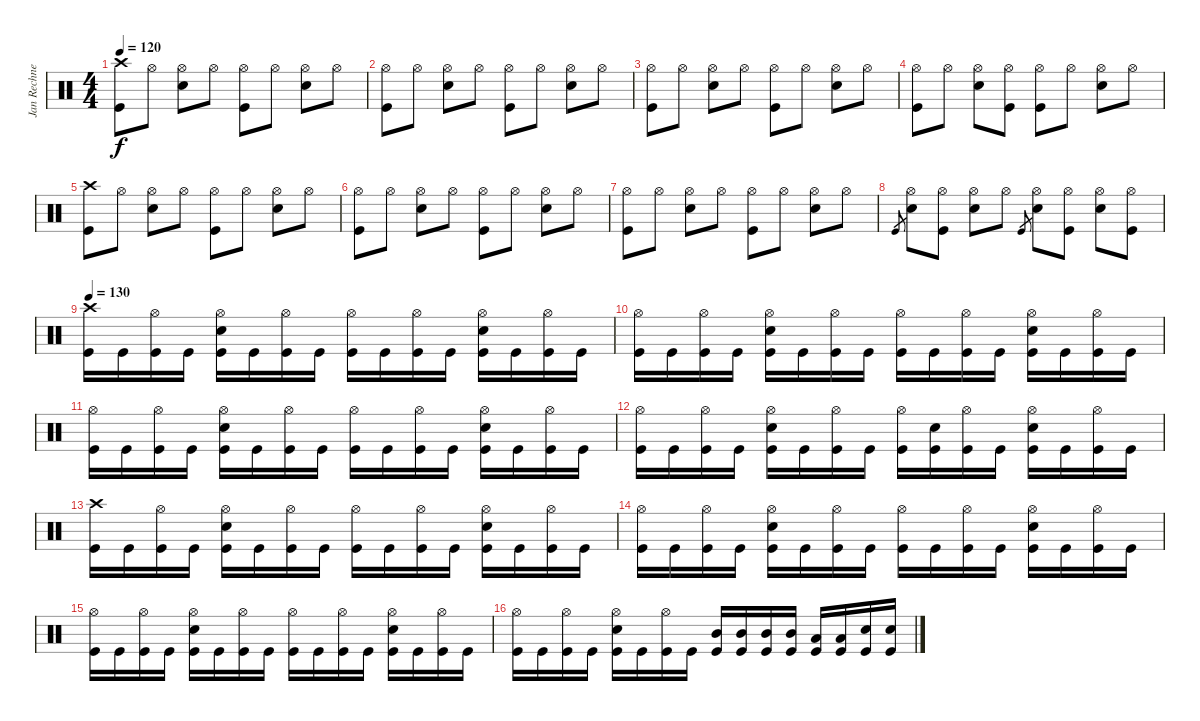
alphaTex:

\track ("Jan Rechnerger" "Jan Rechne") {instrument percussion}
\staff {score}
\articulation defaults
\ts (4 4)
\tempo 120
\clef neutral
\ks c
("Kick (hit)" "Crash high (hit)").8{dy f} "Hi-Hat (open)".8 ("Snare (hit) 2" "Hi-Hat (open)").8 "Hi-Hat (open)".8 ("Kick (hit)" "Hi-Hat (open)").8 "Hi-Hat (open)".8 ("Snare (hit) 2" "Hi-Hat (open)").8 "Hi-Hat (open)".8 |
("Kick (hit)" "Hi-Hat (open)").8 "Hi-Hat (open)".8 ("Snare (hit) 2" "Hi-Hat (open)").8 "Hi-Hat (open)".8 ("Kick (hit)" "Hi-Hat (open)").8 "Hi-Hat (open)".8 ("Snare (hit) 2" "Hi-Hat (open)").8 "Hi-Hat (open)".8 |
("Kick (hit)" "Hi-Hat (open)").8 "Hi-Hat (open)".8 ("Snare (hit) 2" "Hi-Hat (open)").8 "Hi-Hat (open)".8 ("Kick (hit)" "Hi-Hat (open)").8 "Hi-Hat (open)".8 ("Snare (hit) 2" "Hi-Hat (open)").8 "Hi-Hat (open)".8 |
("Kick (hit)" "Hi-Hat (open)").8 "Hi-Hat (open)".8 ("Snare (hit) 2" "Hi-Hat (open)").8 ("Kick (hit)" "Hi-Hat (open)").8 ("Kick (hit)" "Hi-Hat (open)").8 "Hi-Hat (open)".8 ("Snare (hit) 2" "Hi-Hat (open)").8 "Hi-Hat (open)".8 |
("Kick (hit)" "Crash high (hit)").8 "Hi-Hat (open)".8 ("Snare (hit) 2" "Hi-Hat (open)").8 "Hi-Hat (open)".8 ("Kick (hit)" "Hi-Hat (open)").8 "Hi-Hat (open)".8 ("Snare (hit) 2" "Hi-Hat (open)").8 "Hi-Hat (open)".8 |
("Kick (hit)" "Hi-Hat (open)").8 "Hi-Hat (open)".8 ("Snare (hit) 2" "Hi-Hat (open)").8 "Hi-Hat (open)".8 ("Kick (hit)" "Hi-Hat (open)").8 "Hi-Hat (open)".8 ("Snare (hit) 2" "Hi-Hat (open)").8 "Hi-Hat (open)".8 |
("Kick (hit)" "Hi-Hat (open)").8 "Hi-Hat (open)".8 ("Snare (hit) 2" "Hi-Hat (open)").8 "Hi-Hat (open)".8 ("Kick (hit)" "Hi-Hat (open)").8 "Hi-Hat (open)".8 ("Snare (hit) 2" "Hi-Hat (open)").8 "Hi-Hat (open)".8 |
"Kick (hit)".8{gr} ("Snare (hit) 2" "Hi-Hat (open)").8 ("Kick (hit)" "Hi-Hat (open)").8 ("Snare (hit) 2" "Hi-Hat (open)").8 "Hi-Hat (open)".8 "Kick (hit)".8{gr} ("Snare (hit) 2" "Hi-Hat (open)").8 ("Kick (hit)" "Hi-Hat (open)").8 ("Snare (hit) 2" "Hi-Hat (open)").8 ("Kick (hit)" "Hi-Hat (open)").8 |
\tempo 130
("Kick (hit)" "Crash high (hit)").16 "Kick (hit)".16 ("Kick (hit)" "Hi-Hat (open)").16 "Kick (hit)".16 ("Kick (hit)" "Snare (hit) 2" "Hi-Hat (open)").16 "Kick (hit)".16 ("Kick (hit)" "Hi-Hat (open)").16 "Kick (hit)".16 ("Kick (hit)" "Hi-Hat (open)").16 "Kick (hit)".16 ("Kick (hit)" "Hi-Hat (open)").16 "Kick (hit)".16 ("Kick (hit)" "Snare (hit) 2" "Hi-Hat (open)").16 "Kick (hit)".16 ("Kick (hit)" "Hi-Hat (open)").16 "Kick (hit)".16 |
("Kick (hit)" "Hi-Hat (open)").16 "Kick (hit)".16 ("Kick (hit)" "Hi-Hat (open)").16 "Kick (hit)".16 ("Kick (hit)" "Snare (hit) 2" "Hi-Hat (open)").16 "Kick (hit)".16 ("Kick (hit)" "Hi-Hat (open)").16 "Kick (hit)".16 ("Kick (hit)" "Hi-Hat (open)").16 "Kick (hit)".16 ("Kick (hit)" "Hi-Hat (open)").16 "Kick (hit)".16 ("Kick (hit)" "Snare (hit) 2" "Hi-Hat (open)").16 "Kick (hit)".16 ("Kick (hit)" "Hi-Hat (open)").16 "Kick (hit)".16 |
("Kick (hit)" "Hi-Hat (open)").16 "Kick (hit)".16 ("Kick (hit)" "Hi-Hat (open)").16 "Kick (hit)".16 ("Kick (hit)" "Snare (hit) 2" "Hi-Hat (open)").16 "Kick (hit)".16 ("Kick (hit)" "Hi-Hat (open)").16 "Kick (hit)".16 ("Kick (hit)" "Hi-Hat (open)").16 "Kick (hit)".16 ("Kick (hit)" "Hi-Hat (open)").16 "Kick (hit)".16 ("Kick (hit)" "Snare (hit) 2" "Hi-Hat (open)").16 "Kick (hit)".16 ("Kick (hit)" "Hi-Hat (open)").16 "Kick (hit)".16 |
("Kick (hit)" "Hi-Hat (open)").16 "Kick (hit)".16 ("Kick (hit)" "Hi-Hat (open)").16 "Kick (hit)".16 ("Kick (hit)" "Snare (hit) 2" "Hi-Hat (open)").16 "Kick (hit)".16 ("Kick (hit)" "Hi-Hat (open)").16 "Kick (hit)".16 ("Kick (hit)" "Hi-Hat (open)").16 ("Kick (hit)" "Snare (hit) 2").16 ("Kick (hit)" "Hi-Hat (open)").16 "Kick (hit)".16 ("Kick (hit)" "Snare (hit) 2" "Hi-Hat (open)").16 "Kick (hit)".16 ("Kick (hit)" "Hi-Hat (open)").16 "Kick (hit)".16 |
("Kick (hit)" "Crash high (hit)").16 "Kick (hit)".16 ("Kick (hit)" "Hi-Hat (open)").16 "Kick (hit)".16 ("Kick (hit)" "Snare (hit) 2" "Hi-Hat (open)").16 "Kick (hit)".16 ("Kick (hit)" "Hi-Hat (open)").16 "Kick (hit)".16 ("Kick (hit)" "Hi-Hat (open)").16 "Kick (hit)".16 ("Kick (hit)" "Hi-Hat (open)").16 "Kick (hit)".16 ("Kick (hit)" "Snare (hit) 2" "Hi-Hat (open)").16 "Kick (hit)".16 ("Kick (hit)" "Hi-Hat (open)").16 "Kick (hit)".16 |
("Kick (hit)" "Hi-Hat (open)").16 "Kick (hit)".16 ("Kick (hit)" "Hi-Hat (open)").16 "Kick (hit)".16 ("Kick (hit)" "Snare (hit) 2" "Hi-Hat (open)").16 "Kick (hit)".16 ("Kick (hit)" "Hi-Hat (open)").16 "Kick (hit)".16 ("Kick (hit)" "Hi-Hat (open)").16 "Kick (hit)".16 ("Kick (hit)" "Hi-Hat (open)").16 "Kick (hit)".16 ("Kick (hit)" "Snare (hit) 2" "Hi-Hat (open)").16 "Kick (hit)".16 ("Kick (hit)" "Hi-Hat (open)").16 "Kick (hit)".16 |
("Kick (hit)" "Hi-Hat (open)").16 "Kick (hit)".16 ("Kick (hit)" "Hi-Hat (open)").16 "Kick (hit)".16 ("Kick (hit)" "Snare (hit) 2" "Hi-Hat (open)").16 "Kick (hit)".16 ("Kick (hit)" "Hi-Hat (open)").16 "Kick (hit)".16 ("Kick (hit)" "Hi-Hat (open)").16 "Kick (hit)".16 ("Kick (hit)" "Hi-Hat (open)").16 "Kick (hit)".16 ("Kick (hit)" "Snare (hit) 2" "Hi-Hat (open)").16 "Kick (hit)".16 ("Kick (hit)" "Hi-Hat (open)").16 "Kick (hit)".16 |
("Kick (hit)" "Hi-Hat (open)").16 "Kick (hit)".16 ("Kick (hit)" "Hi-Hat (open)").16 "Kick (hit)".16 ("Kick (hit)" "Snare (hit) 2" "Hi-Hat (open)").16 "Kick (hit)".16 ("Kick (hit)" "Hi-Hat (open)").16 "Kick (hit)".16 ("Kick (hit)" "Mid Tom (hit)").16 ("Kick (hit)" "Mid Tom (hit)").16 ("Kick (hit)" "Mid Tom (hit)").16 ("Kick (hit)" "Mid Tom (hit)").16 ("Kick (hit)" "Low Tom (hit)").16 ("Kick (hit)" "Low Tom (hit)").16 ("Kick (hit)" "Snare (hit) 2").16 ("Kick (hit)" "Snare (hit) 2").16
